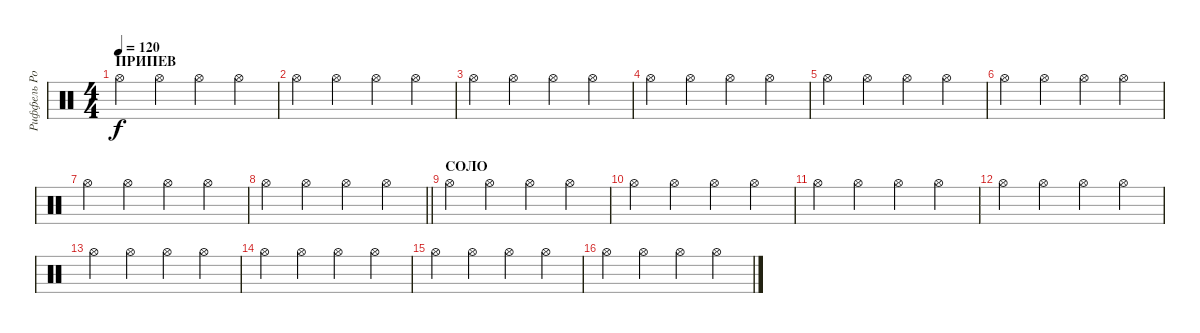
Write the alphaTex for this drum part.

\track ("Риффель Роман (хэты)" "Риффель Ро") {instrument percussion}
\staff {score}
\articulation defaults
\ts (4 4)
\section ("" "ПРИПЕВ")
\tempo 120
\clef neutral
\ks c "Hi-Hat (open)".4{dy f} "Hi-Hat (open)".4 "Hi-Hat (open)".4 "Hi-Hat (open)".4
|
"Hi-Hat (open)".4 "Hi-Hat (open)".4 "Hi-Hat (open)".4 "Hi-Hat (open)".4 |
"Hi-Hat (open)".4 "Hi-Hat (open)".4 "Hi-Hat (open)".4 "Hi-Hat (open)".4 |
"Hi-Hat (open)".4 "Hi-Hat (open)".4 "Hi-Hat (open)".4 "Hi-Hat (open)".4 |
"Hi-Hat (open)".4 "Hi-Hat (open)".4 "Hi-Hat (open)".4 "Hi-Hat (open)".4 |
"Hi-Hat (open)".4 "Hi-Hat (open)".4 "Hi-Hat (open)".4 "Hi-Hat (open)".4 |
"Hi-Hat (open)".4 "Hi-Hat (open)".4 "Hi-Hat (open)".4 "Hi-Hat (open)".4 |
\barLineRight lightlight "Hi-Hat (open)".4 "Hi-Hat (open)".4 "Hi-Hat (open)".4 "Hi-Hat (open)".4
|
\section ("" "СОЛО")
"Hi-Hat (open)".4 "Hi-Hat (open)".4 "Hi-Hat (open)".4 "Hi-Hat (open)".4 |
"Hi-Hat (open)".4 "Hi-Hat (open)".4 "Hi-Hat (open)".4 "Hi-Hat (open)".4 |
"Hi-Hat (open)".4 "Hi-Hat (open)".4 "Hi-Hat (open)".4 "Hi-Hat (open)".4 |
"Hi-Hat (open)".4 "Hi-Hat (open)".4 "Hi-Hat (open)".4 "Hi-Hat (open)".4 |
"Hi-Hat (open)".4 "Hi-Hat (open)".4 "Hi-Hat (open)".4 "Hi-Hat (open)".4 |
"Hi-Hat (open)".4 "Hi-Hat (open)".4 "Hi-Hat (open)".4 "Hi-Hat (open)".4 |
"Hi-Hat (open)".4 "Hi-Hat (open)".4 "Hi-Hat (open)".4 "Hi-Hat (open)".4 |
"Hi-Hat (open)".4 "Hi-Hat (open)".4 "Hi-Hat (open)".4 "Hi-Hat (open)".4
